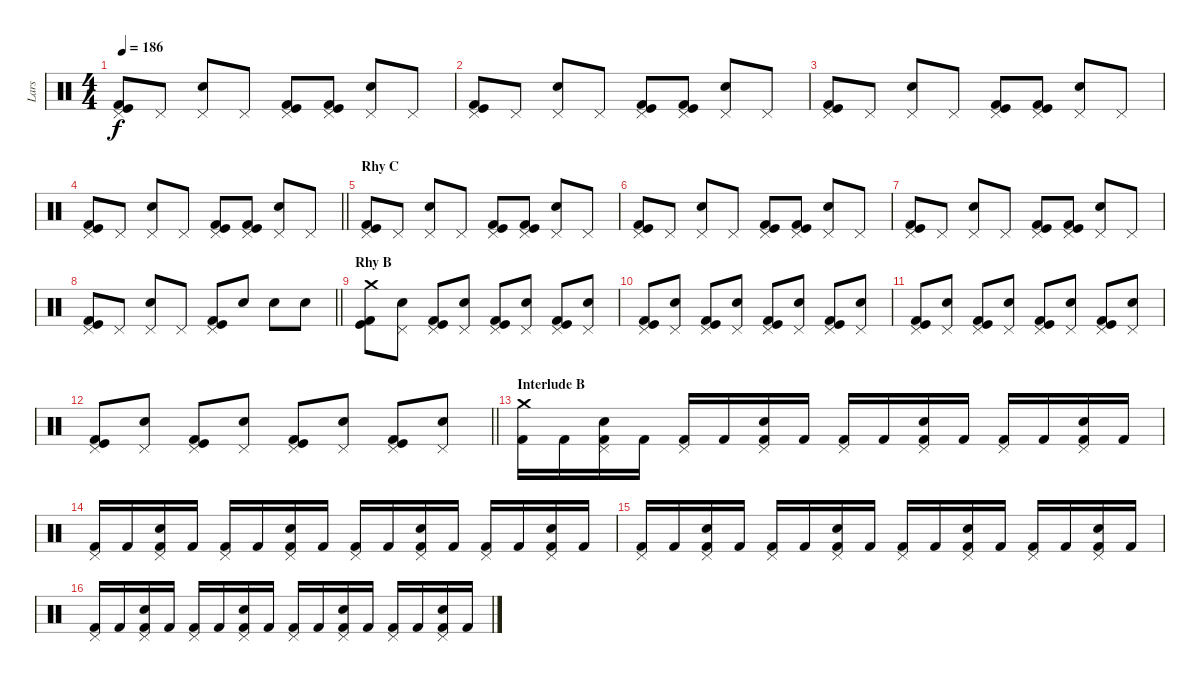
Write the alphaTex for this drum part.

\track ("Lars" "Lars") {instrument percussion}
\staff {score}
\articulation defaults
\ts (4 4)
\tempo 186
\clef neutral
\ks c
("Pedal Hi-Hat (hit)" "Kick (hit)" "Kick (hit) 2").8{dy f} "Pedal Hi-Hat (hit)".8 ("Pedal Hi-Hat (hit)" "Electric Snare (hit)").8 "Pedal Hi-Hat (hit)".8 ("Pedal Hi-Hat (hit)" "Kick (hit)" "Kick (hit) 2").8 ("Pedal Hi-Hat (hit)" "Kick (hit)" "Kick (hit) 2").8 ("Pedal Hi-Hat (hit)" "Electric Snare (hit)").8 "Pedal Hi-Hat (hit)".8 |
("Pedal Hi-Hat (hit)" "Kick (hit)" "Kick (hit) 2").8 "Pedal Hi-Hat (hit)".8 ("Pedal Hi-Hat (hit)" "Electric Snare (hit)").8 "Pedal Hi-Hat (hit)".8 ("Pedal Hi-Hat (hit)" "Kick (hit)" "Kick (hit) 2").8 ("Pedal Hi-Hat (hit)" "Kick (hit)" "Kick (hit) 2").8 ("Pedal Hi-Hat (hit)" "Electric Snare (hit)").8 "Pedal Hi-Hat (hit)".8 |
("Pedal Hi-Hat (hit)" "Kick (hit)" "Kick (hit) 2").8 "Pedal Hi-Hat (hit)".8 ("Pedal Hi-Hat (hit)" "Electric Snare (hit)").8 "Pedal Hi-Hat (hit)".8 ("Pedal Hi-Hat (hit)" "Kick (hit)" "Kick (hit) 2").8 ("Pedal Hi-Hat (hit)" "Kick (hit)" "Kick (hit) 2").8 ("Pedal Hi-Hat (hit)" "Electric Snare (hit)").8 "Pedal Hi-Hat (hit)".8 |
\barLineRight lightlight
("Pedal Hi-Hat (hit)" "Kick (hit)" "Kick (hit) 2").8 "Pedal Hi-Hat (hit)".8 ("Pedal Hi-Hat (hit)" "Electric Snare (hit)").8 "Pedal Hi-Hat (hit)".8 ("Pedal Hi-Hat (hit)" "Kick (hit)" "Kick (hit) 2").8 ("Pedal Hi-Hat (hit)" "Kick (hit)" "Kick (hit) 2").8 ("Pedal Hi-Hat (hit)" "Electric Snare (hit)").8 "Pedal Hi-Hat (hit)".8 |
\section ("" "Rhy C")
("Pedal Hi-Hat (hit)" "Kick (hit)" "Kick (hit) 2").8 "Pedal Hi-Hat (hit)".8 ("Pedal Hi-Hat (hit)" "Electric Snare (hit)").8 "Pedal Hi-Hat (hit)".8 ("Pedal Hi-Hat (hit)" "Kick (hit)" "Kick (hit) 2").8 ("Pedal Hi-Hat (hit)" "Kick (hit)" "Kick (hit) 2").8 ("Pedal Hi-Hat (hit)" "Electric Snare (hit)").8 "Pedal Hi-Hat (hit)".8 |
("Pedal Hi-Hat (hit)" "Kick (hit)" "Kick (hit) 2").8 "Pedal Hi-Hat (hit)".8 ("Pedal Hi-Hat (hit)" "Electric Snare (hit)").8 "Pedal Hi-Hat (hit)".8 ("Pedal Hi-Hat (hit)" "Kick (hit)" "Kick (hit) 2").8 ("Pedal Hi-Hat (hit)" "Kick (hit)" "Kick (hit) 2").8 ("Pedal Hi-Hat (hit)" "Electric Snare (hit)").8 "Pedal Hi-Hat (hit)".8 |
("Pedal Hi-Hat (hit)" "Kick (hit)" "Kick (hit) 2").8 "Pedal Hi-Hat (hit)".8 ("Pedal Hi-Hat (hit)" "Electric Snare (hit)").8 "Pedal Hi-Hat (hit)".8 ("Pedal Hi-Hat (hit)" "Kick (hit)" "Kick (hit) 2").8 ("Pedal Hi-Hat (hit)" "Kick (hit)" "Kick (hit) 2").8 ("Pedal Hi-Hat (hit)" "Electric Snare (hit)").8 "Pedal Hi-Hat (hit)".8 |
\barLineRight lightlight
("Pedal Hi-Hat (hit)" "Kick (hit)" "Kick (hit) 2").8 "Pedal Hi-Hat (hit)".8 ("Pedal Hi-Hat (hit)" "Electric Snare (hit)").8 "Pedal Hi-Hat (hit)".8 ("Pedal Hi-Hat (hit)" "Kick (hit)" "Kick (hit) 2").8 "Electric Snare (hit)".8 "Electric Snare (hit)".8 "Electric Snare (hit)".8 |
\section ("" "Rhy B")
("Crash medium (hit)" "Kick (hit)" "Kick (hit) 2").8 ("Pedal Hi-Hat (hit)" "Electric Snare (hit)").8 ("Pedal Hi-Hat (hit)" "Kick (hit)" "Kick (hit) 2").8 ("Pedal Hi-Hat (hit)" "Electric Snare (hit)").8 ("Pedal Hi-Hat (hit)" "Kick (hit)" "Kick (hit) 2").8 ("Pedal Hi-Hat (hit)" "Electric Snare (hit)").8 ("Pedal Hi-Hat (hit)" "Kick (hit)" "Kick (hit) 2").8 ("Pedal Hi-Hat (hit)" "Electric Snare (hit)").8 |
("Pedal Hi-Hat (hit)" "Kick (hit)" "Kick (hit) 2").8 ("Pedal Hi-Hat (hit)" "Electric Snare (hit)").8 ("Pedal Hi-Hat (hit)" "Kick (hit)" "Kick (hit) 2").8 ("Pedal Hi-Hat (hit)" "Electric Snare (hit)").8 ("Pedal Hi-Hat (hit)" "Kick (hit)" "Kick (hit) 2").8 ("Pedal Hi-Hat (hit)" "Electric Snare (hit)").8 ("Pedal Hi-Hat (hit)" "Kick (hit)" "Kick (hit) 2").8 ("Pedal Hi-Hat (hit)" "Electric Snare (hit)").8 |
("Pedal Hi-Hat (hit)" "Kick (hit)" "Kick (hit) 2").8 ("Pedal Hi-Hat (hit)" "Electric Snare (hit)").8 ("Pedal Hi-Hat (hit)" "Kick (hit)" "Kick (hit) 2").8 ("Pedal Hi-Hat (hit)" "Electric Snare (hit)").8 ("Pedal Hi-Hat (hit)" "Kick (hit)" "Kick (hit) 2").8 ("Pedal Hi-Hat (hit)" "Electric Snare (hit)").8 ("Pedal Hi-Hat (hit)" "Kick (hit)" "Kick (hit) 2").8 ("Pedal Hi-Hat (hit)" "Electric Snare (hit)").8 |
\barLineRight lightlight
("Pedal Hi-Hat (hit)" "Kick (hit)" "Kick (hit) 2").8 ("Pedal Hi-Hat (hit)" "Electric Snare (hit)").8 ("Pedal Hi-Hat (hit)" "Kick (hit)" "Kick (hit) 2").8 ("Pedal Hi-Hat (hit)" "Electric Snare (hit)").8 ("Pedal Hi-Hat (hit)" "Kick (hit)" "Kick (hit) 2").8 ("Pedal Hi-Hat (hit)" "Electric Snare (hit)").8 ("Pedal Hi-Hat (hit)" "Kick (hit)" "Kick (hit) 2").8 ("Pedal Hi-Hat (hit)" "Electric Snare (hit)").8 |
\section ("" "Interlude B")
("Crash medium (hit)" "Kick (hit) 2").16 "Kick (hit) 2".16 ("Pedal Hi-Hat (hit)" "Electric Snare (hit)" "Kick (hit) 2").16 "Kick (hit) 2".16 ("Pedal Hi-Hat (hit)" "Kick (hit) 2").16 "Kick (hit) 2".16 ("Pedal Hi-Hat (hit)" "Electric Snare (hit)" "Kick (hit) 2").16 "Kick (hit) 2".16 ("Pedal Hi-Hat (hit)" "Kick (hit) 2").16 "Kick (hit) 2".16 ("Pedal Hi-Hat (hit)" "Electric Snare (hit)" "Kick (hit) 2").16 "Kick (hit) 2".16 ("Pedal Hi-Hat (hit)" "Kick (hit) 2").16 "Kick (hit) 2".16 ("Pedal Hi-Hat (hit)" "Electric Snare (hit)" "Kick (hit) 2").16 "Kick (hit) 2".16 |
("Pedal Hi-Hat (hit)" "Kick (hit) 2").16 "Kick (hit) 2".16 ("Pedal Hi-Hat (hit)" "Electric Snare (hit)" "Kick (hit) 2").16 "Kick (hit) 2".16 ("Pedal Hi-Hat (hit)" "Kick (hit) 2").16 "Kick (hit) 2".16 ("Pedal Hi-Hat (hit)" "Electric Snare (hit)" "Kick (hit) 2").16 "Kick (hit) 2".16 ("Pedal Hi-Hat (hit)" "Kick (hit) 2").16 "Kick (hit) 2".16 ("Pedal Hi-Hat (hit)" "Electric Snare (hit)" "Kick (hit) 2").16 "Kick (hit) 2".16 ("Pedal Hi-Hat (hit)" "Kick (hit) 2").16 "Kick (hit) 2".16 ("Pedal Hi-Hat (hit)" "Electric Snare (hit)" "Kick (hit) 2").16 "Kick (hit) 2".16 |
("Pedal Hi-Hat (hit)" "Kick (hit) 2").16 "Kick (hit) 2".16 ("Pedal Hi-Hat (hit)" "Electric Snare (hit)" "Kick (hit) 2").16 "Kick (hit) 2".16 ("Pedal Hi-Hat (hit)" "Kick (hit) 2").16 "Kick (hit) 2".16 ("Pedal Hi-Hat (hit)" "Electric Snare (hit)" "Kick (hit) 2").16 "Kick (hit) 2".16 ("Pedal Hi-Hat (hit)" "Kick (hit) 2").16 "Kick (hit) 2".16 ("Pedal Hi-Hat (hit)" "Electric Snare (hit)" "Kick (hit) 2").16 "Kick (hit) 2".16 ("Pedal Hi-Hat (hit)" "Kick (hit) 2").16 "Kick (hit) 2".16 ("Pedal Hi-Hat (hit)" "Electric Snare (hit)" "Kick (hit) 2").16 "Kick (hit) 2".16 |
("Pedal Hi-Hat (hit)" "Kick (hit) 2").16 "Kick (hit) 2".16 ("Pedal Hi-Hat (hit)" "Electric Snare (hit)" "Kick (hit) 2").16 "Kick (hit) 2".16 ("Pedal Hi-Hat (hit)" "Kick (hit) 2").16 "Kick (hit) 2".16 ("Pedal Hi-Hat (hit)" "Electric Snare (hit)" "Kick (hit) 2").16 "Kick (hit) 2".16 ("Pedal Hi-Hat (hit)" "Kick (hit) 2").16 "Kick (hit) 2".16 ("Pedal Hi-Hat (hit)" "Electric Snare (hit)" "Kick (hit) 2").16 "Kick (hit) 2".16 ("Pedal Hi-Hat (hit)" "Kick (hit) 2").16 "Kick (hit) 2".16 ("Pedal Hi-Hat (hit)" "Electric Snare (hit)" "Kick (hit) 2").16 "Kick (hit) 2".16
